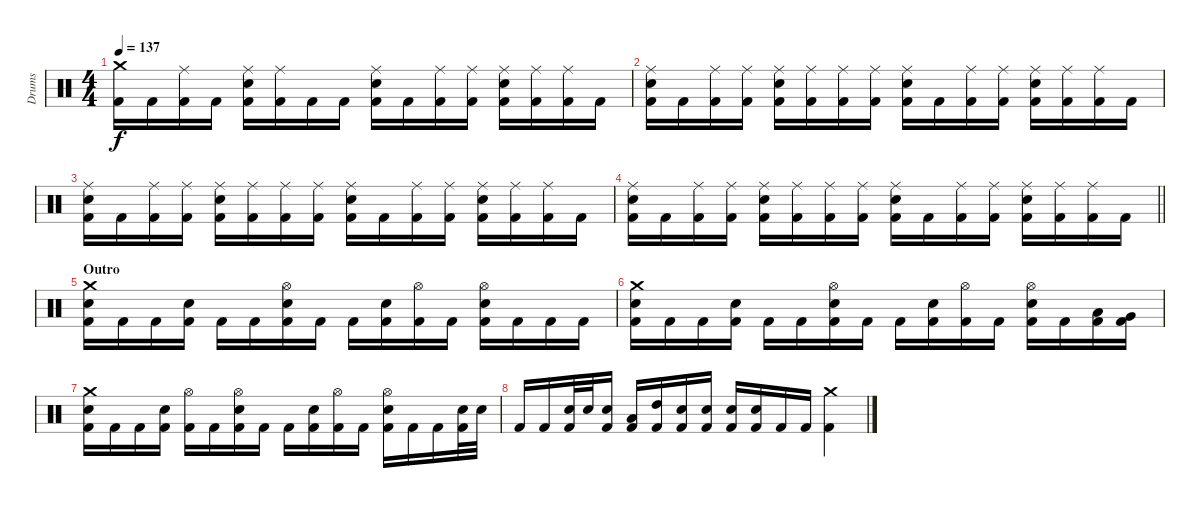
\track ("Drums" "Drums") {instrument percussion}
\staff {score}
\articulation defaults
\ts (4 4)
\tempo 137
\clef neutral
\ks c
("Crash medium (hit)" "Kick (hit) 2").16{dy f} "Kick (hit) 2".16 ("Ride (middle)" "Kick (hit) 2").16 "Kick (hit) 2".16 ("Ride (middle)" "Electric Snare (hit)" "Kick (hit) 2").16 ("Ride (middle)" "Kick (hit) 2").16 "Kick (hit) 2".16 "Kick (hit) 2".16 ("Ride (middle)" "Electric Snare (hit)" "Kick (hit) 2").16 "Kick (hit) 2".16 ("Ride (middle)" "Kick (hit) 2").16 ("Ride (middle)" "Kick (hit) 2").16 ("Ride (middle)" "Electric Snare (hit)" "Kick (hit) 2").16 ("Ride (middle)" "Kick (hit) 2").16 ("Ride (middle)" "Kick (hit) 2").16 "Kick (hit) 2".16 |
("Ride (middle)" "Electric Snare (hit)" "Kick (hit) 2").16 "Kick (hit) 2".16 ("Ride (middle)" "Kick (hit) 2").16 ("Ride (middle)" "Kick (hit) 2").16 ("Ride (middle)" "Electric Snare (hit)" "Kick (hit) 2").16 ("Ride (middle)" "Kick (hit) 2").16 ("Ride (middle)" "Kick (hit) 2").16 ("Ride (middle)" "Kick (hit) 2").16 ("Ride (middle)" "Electric Snare (hit)" "Kick (hit) 2").16 "Kick (hit) 2".16 ("Ride (middle)" "Kick (hit) 2").16 ("Ride (middle)" "Kick (hit) 2").16 ("Ride (middle)" "Electric Snare (hit)" "Kick (hit) 2").16 ("Ride (middle)" "Kick (hit) 2").16 ("Ride (middle)" "Kick (hit) 2").16 "Kick (hit) 2".16 |
("Ride (middle)" "Electric Snare (hit)" "Kick (hit) 2").16 "Kick (hit) 2".16 ("Ride (middle)" "Kick (hit) 2").16 ("Ride (middle)" "Kick (hit) 2").16 ("Ride (middle)" "Electric Snare (hit)" "Kick (hit) 2").16 ("Ride (middle)" "Kick (hit) 2").16 ("Ride (middle)" "Kick (hit) 2").16 ("Ride (middle)" "Kick (hit) 2").16 ("Ride (middle)" "Electric Snare (hit)" "Kick (hit) 2").16 "Kick (hit) 2".16 ("Ride (middle)" "Kick (hit) 2").16 ("Ride (middle)" "Kick (hit) 2").16 ("Ride (middle)" "Electric Snare (hit)" "Kick (hit) 2").16 ("Ride (middle)" "Kick (hit) 2").16 ("Ride (middle)" "Kick (hit) 2").16 "Kick (hit) 2".16 |
\barLineRight lightlight
("Ride (middle)" "Electric Snare (hit)" "Kick (hit) 2").16 "Kick (hit) 2".16 ("Ride (middle)" "Kick (hit) 2").16 ("Ride (middle)" "Kick (hit) 2").16 ("Ride (middle)" "Electric Snare (hit)" "Kick (hit) 2").16 ("Ride (middle)" "Kick (hit) 2").16 ("Ride (middle)" "Kick (hit) 2").16 ("Ride (middle)" "Kick (hit) 2").16 ("Ride (middle)" "Electric Snare (hit)" "Kick (hit) 2").16 "Kick (hit) 2".16 ("Ride (middle)" "Kick (hit) 2").16 ("Ride (middle)" "Kick (hit) 2").16 ("Ride (middle)" "Electric Snare (hit)" "Kick (hit) 2").16 ("Ride (middle)" "Kick (hit) 2").16 ("Ride (middle)" "Kick (hit) 2").16 "Kick (hit) 2".16 |
\section ("" "Outro")
("Crash medium (hit)" "Electric Snare (hit)" "Kick (hit) 2").16 "Kick (hit) 2".16 "Kick (hit) 2".16 ("Electric Snare (hit)" "Kick (hit) 2").16 "Kick (hit) 2".16 "Kick (hit) 2".16 ("Hi-Hat (open)" "Electric Snare (hit)" "Kick (hit) 2").16 "Kick (hit) 2".16 "Kick (hit) 2".16 ("Electric Snare (hit)" "Kick (hit) 2").16 ("Hi-Hat (open)" "Kick (hit) 2").16 "Kick (hit) 2".16 ("Hi-Hat (open)" "Electric Snare (hit)" "Kick (hit) 2").16 "Kick (hit) 2".16 "Kick (hit) 2".16 "Kick (hit) 2".16 |
("Crash medium (hit)" "Electric Snare (hit)" "Kick (hit) 2").16 "Kick (hit) 2".16 "Kick (hit) 2".16 ("Electric Snare (hit)" "Kick (hit) 2").16 "Kick (hit) 2".16 "Kick (hit) 2".16 ("Hi-Hat (open)" "Electric Snare (hit)" "Kick (hit) 2").16 "Kick (hit) 2".16 "Kick (hit) 2".16 ("Electric Snare (hit)" "Kick (hit) 2").16 ("Hi-Hat (open)" "Kick (hit) 2").16 "Kick (hit) 2".16 ("Hi-Hat (open)" "Electric Snare (hit)" "Kick (hit) 2").16 "Kick (hit) 2".16 ("Low Tom (hit)" "Kick (hit) 2").16 ("Very Low Tom (hit)" "Kick (hit) 2").16 |
("Crash medium (hit)" "Electric Snare (hit)" "Kick (hit) 2").16 "Kick (hit) 2".16 "Kick (hit) 2".16 ("Electric Snare (hit)" "Kick (hit) 2").16 ("Hi-Hat (open)" "Kick (hit) 2").16 "Kick (hit) 2".16 ("Hi-Hat (open)" "Electric Snare (hit)" "Kick (hit) 2").16 "Kick (hit) 2".16 "Kick (hit) 2".16 ("Electric Snare (hit)" "Kick (hit) 2").16 ("Hi-Hat (open)" "Kick (hit) 2").16 "Kick (hit) 2".16 ("Hi-Hat (open)" "Electric Snare (hit)" "Kick (hit) 2").16 "Kick (hit) 2".16 "Kick (hit) 2".16 ("Electric Snare (hit)" "Kick (hit) 2").32 "Electric Snare (hit)".32 |
"Kick (hit) 2".16 "Kick (hit) 2".16 ("Electric Snare (hit)" "Kick (hit) 2").32 "Electric Snare (hit)".32 ("Electric Snare (hit)" "Kick (hit) 2").16 ("Low Tom (hit)" "Kick (hit) 2").16 ("High Tom (hit)" "Kick (hit) 2").16 ("Electric Snare (hit)" "Kick (hit) 2").16 ("Electric Snare (hit)" "Kick (hit) 2").16 ("Electric Snare (hit)" "Kick (hit) 2").16 ("Electric Snare (hit)" "Kick (hit) 2").16 "Kick (hit) 2".16 "Kick (hit) 2".16 ("Crash medium (hit)" "Kick (hit) 2").4
